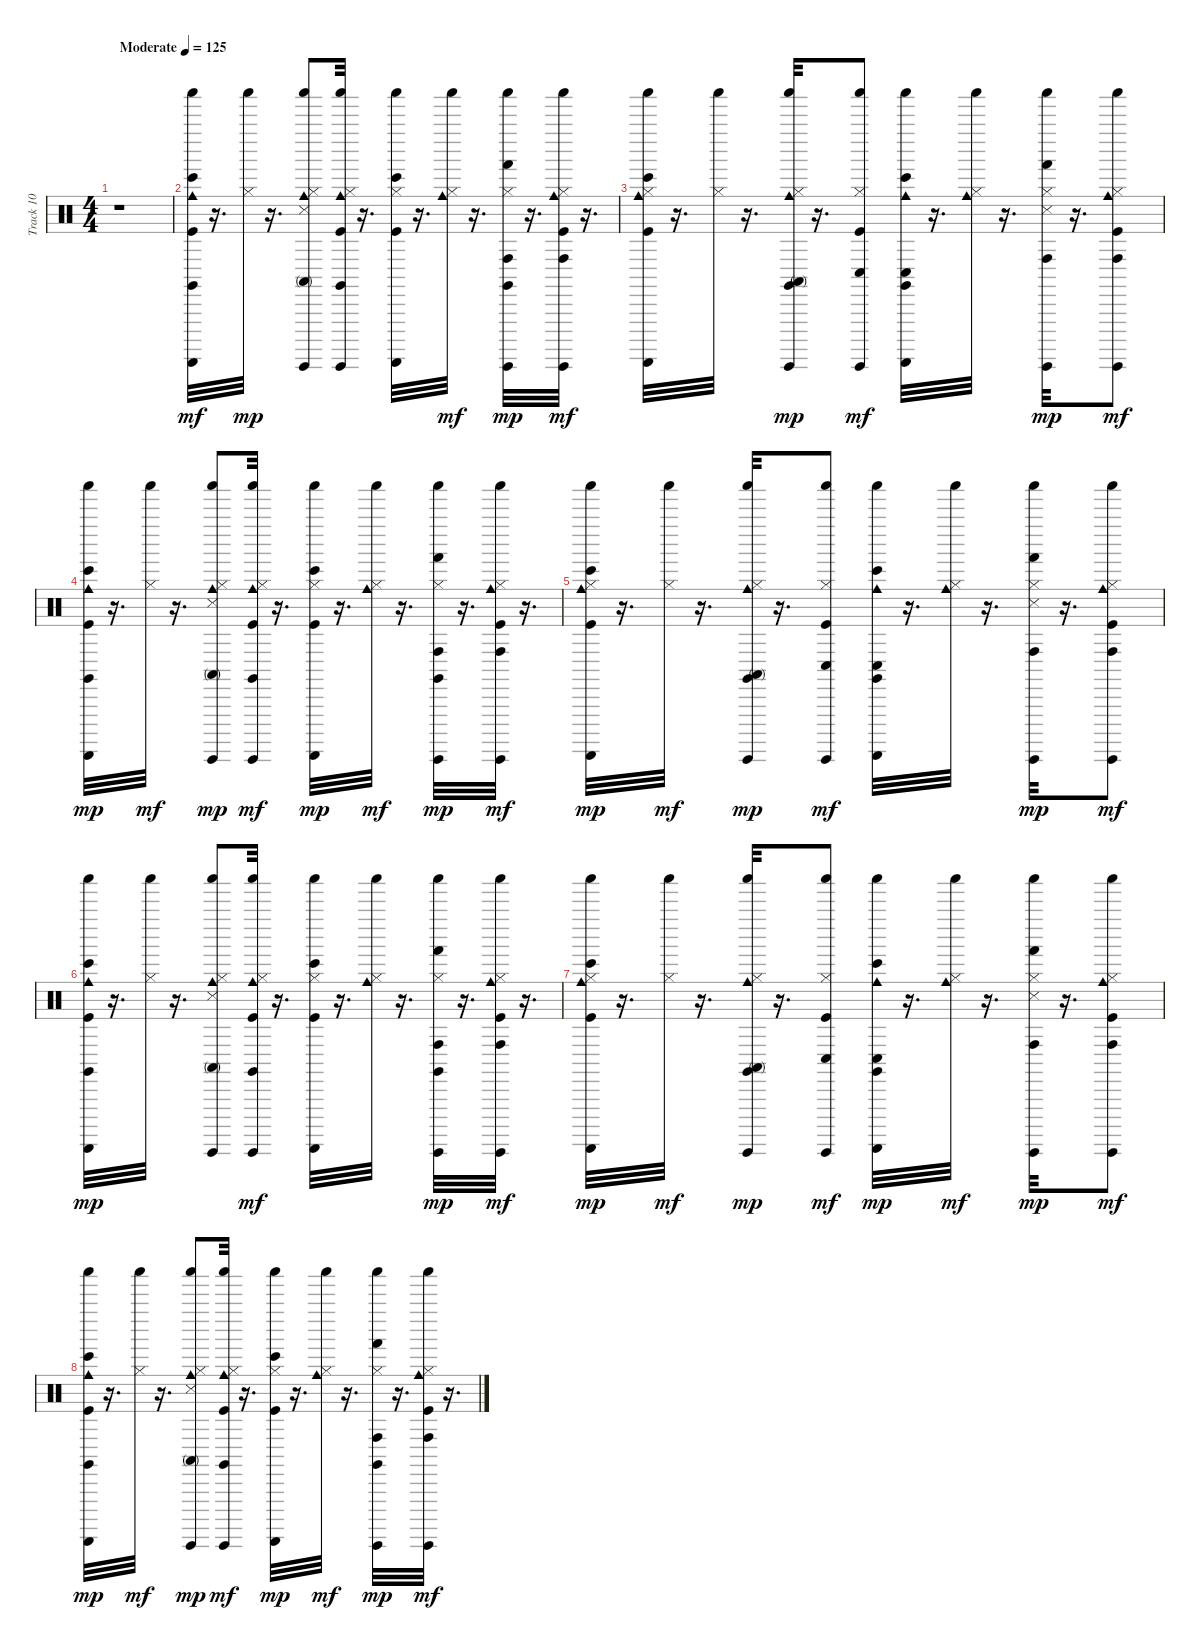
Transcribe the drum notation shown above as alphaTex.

\track ("Track 10" "Track 10") {instrument percussion}
\staff {score}
\articulation defaults
\ts (4 4)
\tempo (125 "Moderate")
\clef neutral
\ks c
r.1{dy mf} |
("Shaker (hit)" "Claves (hit)" "Bongo High (hit)" "Cowbell medium (hit)" "Guiro (scrap-return)" "Kick (hit)").32 r.16{d} ("Shaker (hit)" "Hi-Hat (closed)").32{dy mp} r.16{d} ("Shaker (hit)" "Conga high (mute)" "Cowbell medium (hit)" "Guiro (hit)" "Hi-Hat (closed)" "Snare (side stick) 3").8 ("Shaker (hit)" "Claves (hit)" "Cowbell medium (hit)" "Guiro (hit)" "Kick (hit)" "Hi-Hat (closed)").32 r.16{d} ("Shaker (hit)" "Bongo High (hit)" "Guiro (scrap-return)" "Kick (hit)" "Hi-Hat (closed)").32 r.16{d} ("Shaker (hit)" "Cowbell medium (hit)" "Hi-Hat (closed)").32{dy mf} r.16{d} ("Shaker (hit)" "Claves (hit)" "Conga high (hit)" "Hand (hit)" "Guiro (hit)" "Hi-Hat (closed)").32{dy mp} r.16{d} ("Shaker (hit)" "Conga high (hit)" "Cowbell medium (hit)" "Guiro (hit)" "Kick (hit)" "Hi-Hat (closed)").32{dy mf} r.16{d} |
("Shaker (hit)" "Bongo High (hit)" "Cowbell medium (hit)" "Guiro (scrap-return)" "Kick (hit)" "Hi-Hat (closed)").32 r.16{d} ("Shaker (hit)" "Hi-Hat (closed)").32 r.16{d} ("Shaker (hit)" "Claves (hit)" "Conga high (mute)" "Cowbell medium (hit)" "Guiro (hit)" "Hi-Hat (closed)").32{dy mp} r.16{d} ("Shaker (hit)" "Conga low (hit)" "Guiro (hit)" "Kick (hit)" "Hi-Hat (closed)").8{dy mf} ("Shaker (hit)" "Claves (hit)" "Conga low (hit)" "Bongo High (hit)" "Cowbell medium (hit)" "Guiro (scrap-return)").32 r.16{d} ("Shaker (hit)" "Cowbell medium (hit)" "Hi-Hat (closed)").32 r.16{d} ("Shaker (hit)" "Conga high (hit)" "Hand (hit)" "Guiro (hit)" "Hi-Hat (closed)" "Snare (side stick) 3").32{dy mp} r.16{d} ("Shaker (hit)" "Conga high (hit)" "Cowbell medium (hit)" "Guiro (hit)" "Kick (hit)" "Hi-Hat (closed)").8{dy mf} |
("Shaker (hit)" "Claves (hit)" "Bongo High (hit)" "Cowbell medium (hit)" "Guiro (scrap-return)" "Kick (hit)").32{dy mp} r.16{d} ("Shaker (hit)" "Hi-Hat (closed)").32{dy mf} r.16{d} ("Shaker (hit)" "Conga high (mute)" "Cowbell medium (hit)" "Guiro (hit)" "Hi-Hat (closed)" "Snare (side stick) 3").8{dy mp} ("Shaker (hit)" "Claves (hit)" "Cowbell medium (hit)" "Guiro (hit)" "Kick (hit)" "Hi-Hat (closed)").32{dy mf} r.16{d} ("Shaker (hit)" "Bongo High (hit)" "Guiro (scrap-return)" "Kick (hit)" "Hi-Hat (closed)").32{dy mp} r.16{d} ("Shaker (hit)" "Cowbell medium (hit)" "Hi-Hat (closed)").32{dy mf} r.16{d} ("Shaker (hit)" "Claves (hit)" "Conga high (hit)" "Hand (hit)" "Guiro (hit)" "Hi-Hat (closed)").32{dy mp} r.16{d} ("Shaker (hit)" "Conga high (hit)" "Cowbell medium (hit)" "Guiro (hit)" "Kick (hit)" "Hi-Hat (closed)").32{dy mf} r.16{d} |
("Shaker (hit)" "Bongo High (hit)" "Cowbell medium (hit)" "Guiro (scrap-return)" "Kick (hit)" "Hi-Hat (closed)").32{dy mp} r.16{d} ("Shaker (hit)" "Hi-Hat (closed)").32{dy mf} r.16{d} ("Shaker (hit)" "Claves (hit)" "Conga high (mute)" "Cowbell medium (hit)" "Guiro (hit)" "Hi-Hat (closed)").32{dy mp} r.16{d} ("Shaker (hit)" "Conga low (hit)" "Guiro (hit)" "Kick (hit)" "Hi-Hat (closed)").8{dy mf} ("Shaker (hit)" "Claves (hit)" "Conga low (hit)" "Bongo High (hit)" "Cowbell medium (hit)" "Guiro (scrap-return)").32 r.16{d} ("Shaker (hit)" "Cowbell medium (hit)" "Hi-Hat (closed)").32 r.16{d} ("Shaker (hit)" "Conga high (hit)" "Hand (hit)" "Guiro (hit)" "Hi-Hat (closed)" "Snare (side stick) 3").32{dy mp} r.16{d} ("Shaker (hit)" "Conga high (hit)" "Cowbell medium (hit)" "Guiro (hit)" "Kick (hit)" "Hi-Hat (closed)").8{dy mf} |
("Shaker (hit)" "Claves (hit)" "Bongo High (hit)" "Cowbell medium (hit)" "Guiro (scrap-return)" "Kick (hit)").32{dy mp} r.16{d} ("Shaker (hit)" "Hi-Hat (closed)").32 r.16{d} ("Shaker (hit)" "Conga high (mute)" "Cowbell medium (hit)" "Guiro (hit)" "Hi-Hat (closed)" "Snare (side stick) 3").8 ("Shaker (hit)" "Claves (hit)" "Cowbell medium (hit)" "Guiro (hit)" "Kick (hit)" "Hi-Hat (closed)").32{dy mf} r.16{d} ("Shaker (hit)" "Bongo High (hit)" "Guiro (scrap-return)" "Kick (hit)" "Hi-Hat (closed)").32 r.16{d} ("Shaker (hit)" "Cowbell medium (hit)" "Hi-Hat (closed)").32 r.16{d} ("Shaker (hit)" "Claves (hit)" "Conga high (hit)" "Hand (hit)" "Guiro (hit)" "Hi-Hat (closed)").32{dy mp} r.16{d} ("Shaker (hit)" "Conga high (hit)" "Cowbell medium (hit)" "Guiro (hit)" "Kick (hit)" "Hi-Hat (closed)").32{dy mf} r.16{d} |
("Shaker (hit)" "Bongo High (hit)" "Cowbell medium (hit)" "Guiro (scrap-return)" "Kick (hit)" "Hi-Hat (closed)").32{dy mp} r.16{d} ("Shaker (hit)" "Hi-Hat (closed)").32{dy mf} r.16{d} ("Shaker (hit)" "Claves (hit)" "Conga high (mute)" "Cowbell medium (hit)" "Guiro (hit)" "Hi-Hat (closed)").32{dy mp} r.16{d} ("Shaker (hit)" "Conga low (hit)" "Guiro (hit)" "Kick (hit)" "Hi-Hat (closed)").8{dy mf} ("Shaker (hit)" "Claves (hit)" "Conga low (hit)" "Bongo High (hit)" "Cowbell medium (hit)" "Guiro (scrap-return)").32{dy mp} r.16{d} ("Shaker (hit)" "Cowbell medium (hit)" "Hi-Hat (closed)").32{dy mf} r.16{d} ("Shaker (hit)" "Conga high (hit)" "Hand (hit)" "Guiro (hit)" "Hi-Hat (closed)" "Snare (side stick) 3").32{dy mp} r.16{d} ("Shaker (hit)" "Conga high (hit)" "Cowbell medium (hit)" "Guiro (hit)" "Kick (hit)" "Hi-Hat (closed)").8{dy mf} |
("Shaker (hit)" "Claves (hit)" "Bongo High (hit)" "Cowbell medium (hit)" "Guiro (scrap-return)" "Kick (hit)").32{dy mp} r.16{d} ("Shaker (hit)" "Hi-Hat (closed)").32{dy mf} r.16{d} ("Shaker (hit)" "Conga high (mute)" "Cowbell medium (hit)" "Guiro (hit)" "Hi-Hat (closed)" "Snare (side stick) 3").8{dy mp} ("Shaker (hit)" "Claves (hit)" "Cowbell medium (hit)" "Guiro (hit)" "Kick (hit)" "Hi-Hat (closed)").32{dy mf} r.16{d} ("Shaker (hit)" "Bongo High (hit)" "Guiro (scrap-return)" "Kick (hit)" "Hi-Hat (closed)").32{dy mp} r.16{d} ("Shaker (hit)" "Cowbell medium (hit)" "Hi-Hat (closed)").32{dy mf} r.16{d} ("Shaker (hit)" "Claves (hit)" "Conga high (hit)" "Hand (hit)" "Guiro (hit)" "Hi-Hat (closed)").32{dy mp} r.16{d} ("Shaker (hit)" "Conga high (hit)" "Cowbell medium (hit)" "Guiro (hit)" "Kick (hit)" "Hi-Hat (closed)").32{dy mf} r.16{d}
